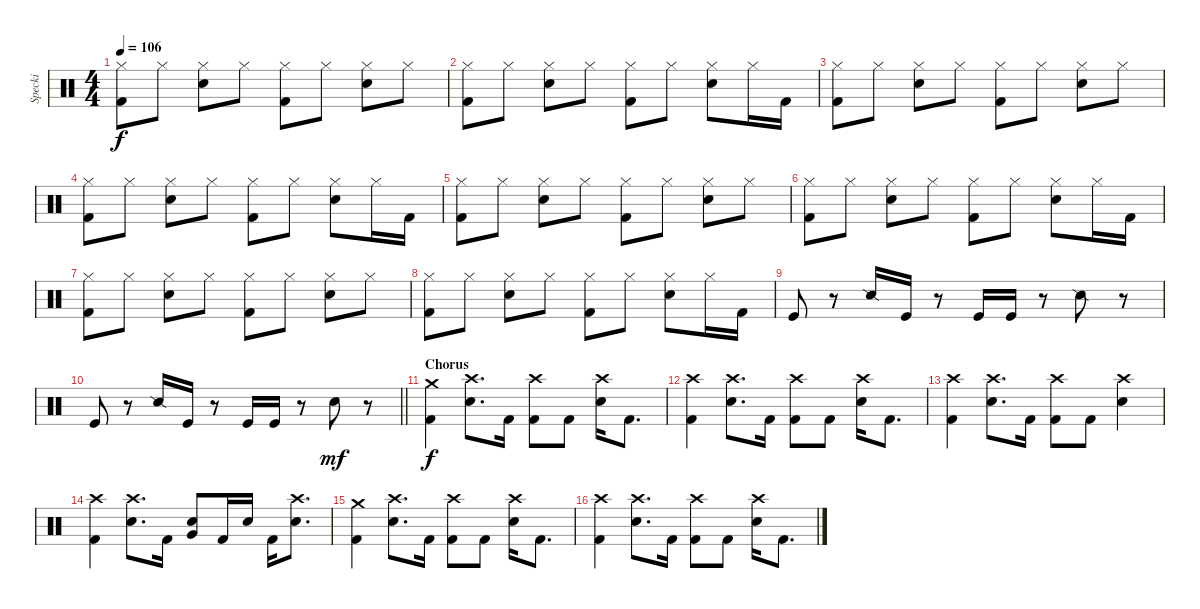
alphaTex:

\track ("Specki" "Specki") {instrument percussion}
\staff {score}
\articulation defaults
\ts (4 4)
\tempo 106
\clef neutral
\ks c
("Hi-Hat (closed)" "Kick (hit) 2").8{dy f} "Hi-Hat (closed)".8 ("Hi-Hat (closed)" "Snare (hit) 2").8 "Hi-Hat (closed)".8 ("Hi-Hat (closed)" "Kick (hit) 2").8 "Hi-Hat (closed)".8 ("Hi-Hat (closed)" "Snare (hit) 2").8 "Hi-Hat (closed)".8 |
("Hi-Hat (closed)" "Kick (hit) 2").8 "Hi-Hat (closed)".8 ("Hi-Hat (closed)" "Snare (hit) 2").8 "Hi-Hat (closed)".8 ("Hi-Hat (closed)" "Kick (hit) 2").8 "Hi-Hat (closed)".8 ("Hi-Hat (closed)" "Snare (hit) 2").8 "Hi-Hat (closed)".16 "Kick (hit) 2".16 |
("Hi-Hat (closed)" "Kick (hit) 2").8 "Hi-Hat (closed)".8 ("Hi-Hat (closed)" "Snare (hit) 2").8 "Hi-Hat (closed)".8 ("Hi-Hat (closed)" "Kick (hit) 2").8 "Hi-Hat (closed)".8 ("Hi-Hat (closed)" "Snare (hit) 2").8 "Hi-Hat (closed)".8 |
("Hi-Hat (closed)" "Kick (hit) 2").8 "Hi-Hat (closed)".8 ("Hi-Hat (closed)" "Snare (hit) 2").8 "Hi-Hat (closed)".8 ("Hi-Hat (closed)" "Kick (hit) 2").8 "Hi-Hat (closed)".8 ("Hi-Hat (closed)" "Snare (hit) 2").8 "Hi-Hat (closed)".16 "Kick (hit) 2".16 |
("Hi-Hat (closed)" "Kick (hit) 2").8 "Hi-Hat (closed)".8 ("Hi-Hat (closed)" "Snare (hit) 2").8 "Hi-Hat (closed)".8 ("Hi-Hat (closed)" "Kick (hit) 2").8 "Hi-Hat (closed)".8 ("Hi-Hat (closed)" "Snare (hit) 2").8 "Hi-Hat (closed)".8 |
("Hi-Hat (closed)" "Kick (hit) 2").8 "Hi-Hat (closed)".8 ("Hi-Hat (closed)" "Snare (hit) 2").8 "Hi-Hat (closed)".8 ("Hi-Hat (closed)" "Kick (hit) 2").8 "Hi-Hat (closed)".8 ("Hi-Hat (closed)" "Snare (hit) 2").8 "Hi-Hat (closed)".16 "Kick (hit) 2".16 |
("Hi-Hat (closed)" "Kick (hit) 2").8 "Hi-Hat (closed)".8 ("Hi-Hat (closed)" "Snare (hit) 2").8 "Hi-Hat (closed)".8 ("Hi-Hat (closed)" "Kick (hit) 2").8 "Hi-Hat (closed)".8 ("Hi-Hat (closed)" "Snare (hit) 2").8 "Hi-Hat (closed)".8 |
("Hi-Hat (closed)" "Kick (hit) 2").8 "Hi-Hat (closed)".8 ("Hi-Hat (closed)" "Snare (hit) 2").8 "Hi-Hat (closed)".8 ("Hi-Hat (closed)" "Kick (hit) 2").8 "Hi-Hat (closed)".8 ("Hi-Hat (closed)" "Snare (hit) 2").8 "Hi-Hat (closed)".16 "Kick (hit) 2".16 |
"Kick (hit)".8 r.8 "Snare (side stick) 2".16 "Kick (hit)".16 r.8 "Kick (hit)".16 "Kick (hit)".16 r.8 "Snare (side stick) 2".8 r.8 |
\barLineRight lightlight "Kick (hit)".8
r.8 "Snare (side stick) 2".16 "Kick (hit)".16 r.8 "Kick (hit)".16 "Kick (hit)".16 r.8 "Snare (hit) 2".8{dy mf} r.8 |
\section ("" "Chorus")
("Crash medium (hit)" "Kick (hit) 2").4{dy f} ("Crash high (hit)" "Snare (hit) 2").8{d} "Kick (hit) 2".16 ("Crash high (hit)" "Kick (hit) 2").8 "Kick (hit) 2".8 ("Crash high (hit)" "Snare (hit) 2").16 "Kick (hit) 2".8{d} |
("Crash high (hit)" "Kick (hit) 2").4 ("Crash high (hit)" "Snare (hit) 2").8{d} "Kick (hit) 2".16 ("Crash high (hit)" "Kick (hit) 2").8 "Kick (hit) 2".8 ("Crash high (hit)" "Snare (hit) 2").16 "Kick (hit) 2".8{d} |
("Crash high (hit)" "Kick (hit) 2").4 ("Crash high (hit)" "Snare (hit) 2").8{d} "Kick (hit) 2".16 ("Crash high (hit)" "Kick (hit) 2").8 "Kick (hit) 2".8 ("Crash high (hit)" "Snare (hit) 2").4 |
("Crash high (hit)" "Kick (hit) 2").4 ("Crash high (hit)" "Snare (hit) 2").8{d} "Kick (hit) 2".16 ("Very Low Tom (hit)" "Snare (hit) 2").8 "Kick (hit) 2".16 "Snare (hit) 2".16 "Kick (hit) 2".16 ("Crash high (hit)" "Snare (hit) 2").8{d} |
("Crash medium (hit)" "Kick (hit) 2").4 ("Crash high (hit)" "Snare (hit) 2").8{d} "Kick (hit) 2".16 ("Crash high (hit)" "Kick (hit) 2").8 "Kick (hit) 2".8 ("Crash high (hit)" "Snare (hit) 2").16 "Kick (hit) 2".8{d} |
("Crash high (hit)" "Kick (hit) 2").4 ("Crash high (hit)" "Snare (hit) 2").8{d} "Kick (hit) 2".16 ("Crash high (hit)" "Kick (hit) 2").8 "Kick (hit) 2".8 ("Crash high (hit)" "Snare (hit) 2").16 "Kick (hit) 2".8{d}
